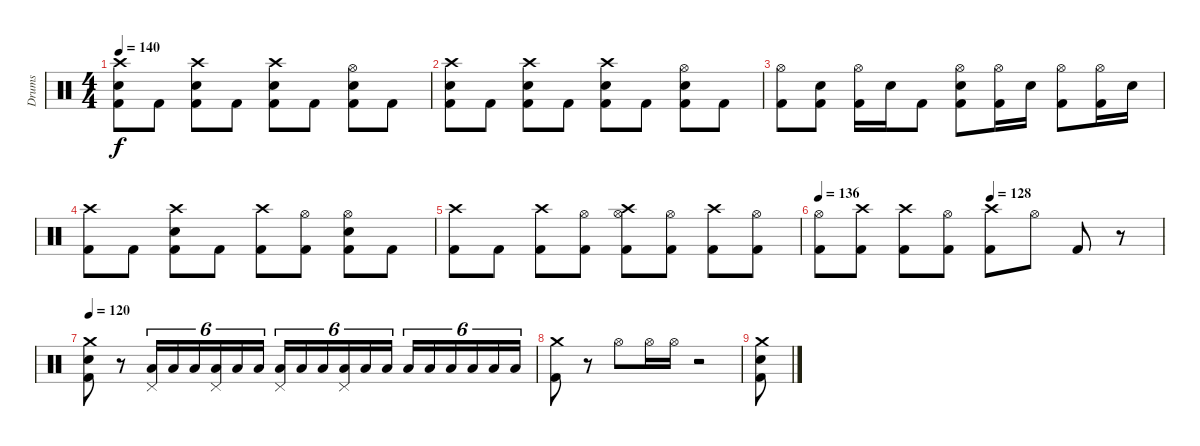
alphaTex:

\track ("Drums" "Drums") {instrument percussion}
\staff {score}
\articulation defaults
\ts (4 4)
\tempo 140
\clef neutral
\ks c
("Crash high (hit)" "Snare (hit) 2" "Kick (hit) 2").8{dy f} "Kick (hit) 2".8 ("Crash high (hit)" "Snare (hit) 2" "Kick (hit) 2").8 "Kick (hit) 2".8 ("Crash high (hit)" "Snare (hit) 2" "Kick (hit) 2").8 "Kick (hit) 2".8 ("Hi-Hat (open)" "Snare (hit) 2" "Kick (hit) 2").8 "Kick (hit) 2".8 |
("Crash high (hit)" "Snare (hit) 2" "Kick (hit) 2").8 "Kick (hit) 2".8 ("Crash high (hit)" "Snare (hit) 2" "Kick (hit) 2").8 "Kick (hit) 2".8 ("Crash high (hit)" "Snare (hit) 2" "Kick (hit) 2").8 "Kick (hit) 2".8 ("Hi-Hat (open)" "Snare (hit) 2" "Kick (hit) 2").8 "Kick (hit) 2".8 |
("Hi-Hat (open)" "Kick (hit) 2").8 ("Snare (hit) 2" "Kick (hit) 2").8 ("Hi-Hat (open)" "Kick (hit) 2").16 "Snare (hit) 2".16 "Kick (hit) 2".8 ("Hi-Hat (open)" "Snare (hit) 2" "Kick (hit) 2").8 ("Hi-Hat (open)" "Kick (hit) 2").16 "Snare (hit) 2".16 ("Hi-Hat (open)" "Kick (hit) 2").8 ("Hi-Hat (open)" "Kick (hit) 2").16 "Snare (hit) 2".16 |
("Crash high (hit)" "Kick (hit) 2").8 "Kick (hit) 2".8 ("Crash high (hit)" "Snare (hit) 2" "Kick (hit) 2").8 "Kick (hit) 2".8 ("Crash high (hit)" "Kick (hit) 2").8 ("Hi-Hat (open)" "Kick (hit) 2").8 ("Hi-Hat (open)" "Snare (hit) 2" "Kick (hit) 2").8 "Kick (hit) 2".8 |
("Crash high (hit)" "Kick (hit) 2").8 "Kick (hit) 2".8 ("Crash high (hit)" "Kick (hit) 2").8 ("Hi-Hat (open)" "Kick (hit) 2").8 ("Crash high (hit)" "Hi-Hat (open)" "Kick (hit) 2").8 ("Hi-Hat (open)" "Kick (hit) 2").8 ("Crash high (hit)" "Kick (hit) 2").8 ("Hi-Hat (open)" "Kick (hit) 2").8 |
\tempo 136
\tempo (128 0.5)
("Hi-Hat (open)" "Kick (hit) 2").8 ("Crash high (hit)" "Kick (hit) 2").8 ("Crash high (hit)" "Kick (hit) 2").8 ("Hi-Hat (open)" "Kick (hit) 2").8 ("Crash high (hit)" "Kick (hit) 2").8 "Hi-Hat (open)".8 "Kick (hit) 2".8 r.8 |
\tempo 120
("Crash medium (hit)" "Snare (hit) 2" "Kick (hit) 2").8 r.8 ("Pedal Hi-Hat (hit)" "Low Floor Tom (hit)").16{tu (6 4)} "Low Floor Tom (hit)".16{tu (6 4)} "Low Floor Tom (hit)".16{tu (6 4)} ("Pedal Hi-Hat (hit)" "Low Floor Tom (hit)").16{tu (6 4)} "Low Floor Tom (hit)".16{tu (6 4)} "Low Floor Tom (hit)".16{tu (6 4)} ("Pedal Hi-Hat (hit)" "Low Floor Tom (hit)").16{tu (6 4)} "Low Floor Tom (hit)".16{tu (6 4)} "Low Floor Tom (hit)".16{tu (6 4)} ("Pedal Hi-Hat (hit)" "Low Floor Tom (hit)").16{tu (6 4)} "Low Floor Tom (hit)".16{tu (6 4)} "Low Floor Tom (hit)".16{tu (6 4)} "Low Floor Tom (hit)".16{tu (6 4)} "Low Floor Tom (hit)".16{tu (6 4)} "Low Floor Tom (hit)".16{tu (6 4)} "Low Floor Tom (hit)".16{tu (6 4)} "Low Floor Tom (hit)".16{tu (6 4)} "Low Floor Tom (hit)".16{tu (6 4)} |
("Crash medium (hit)" "Kick (hit) 2").8 r.8 "Hi-Hat (open)".8 "Hi-Hat (open)".16 "Hi-Hat (open)".16 r.2 |
("Crash medium (hit)" "Snare (hit) 2" "Kick (hit) 2").8
